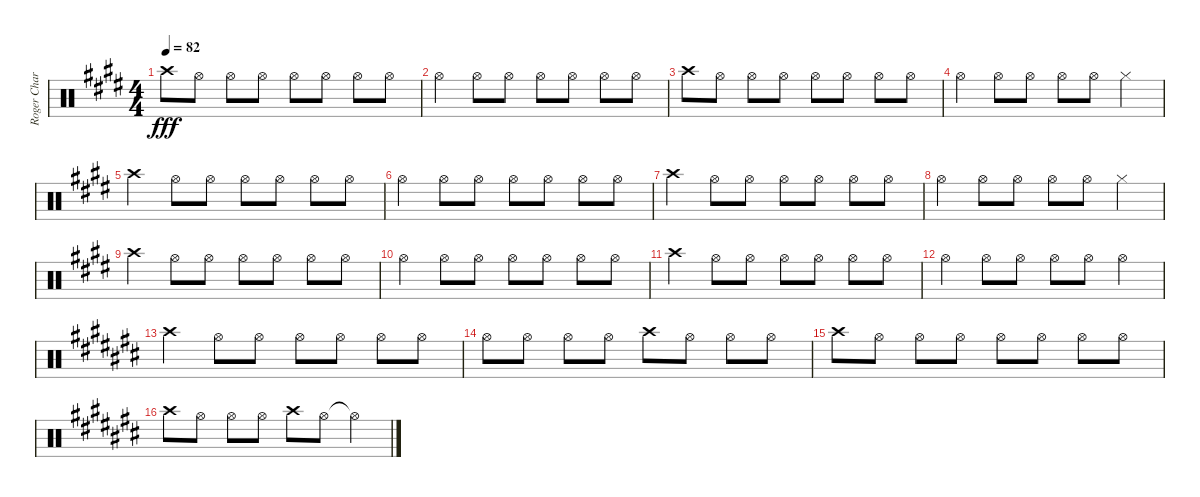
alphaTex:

\track ("Roger Charlet" "Roger Char") {instrument percussion}
\staff {score}
\articulation defaults
\ts (4 4)
\tempo 82
\clef neutral
\ks e "Crash high (hit)".8{dy fff} "Hi-Hat (open)".8 "Hi-Hat (open)".8 "Hi-Hat (open)".8 "Hi-Hat (open)".8 "Hi-Hat (open)".8 "Hi-Hat (open)".8 "Hi-Hat (open)".8
|
"Hi-Hat (open)".4 "Hi-Hat (open)".8 "Hi-Hat (open)".8 "Hi-Hat (open)".8 "Hi-Hat (open)".8 "Hi-Hat (open)".8 "Hi-Hat (open)".8 |
"Crash high (hit)".8 "Hi-Hat (open)".8 "Hi-Hat (open)".8 "Hi-Hat (open)".8 "Hi-Hat (open)".8 "Hi-Hat (open)".8 "Hi-Hat (open)".8 "Hi-Hat (open)".8 |
"Hi-Hat (open)".4 "Hi-Hat (open)".8 "Hi-Hat (open)".8 "Hi-Hat (open)".8 "Hi-Hat (open)".8 "Hi-Hat (closed)".4 |
"Crash high (hit)".4 "Hi-Hat (open)".8 "Hi-Hat (open)".8 "Hi-Hat (open)".8 "Hi-Hat (open)".8 "Hi-Hat (open)".8 "Hi-Hat (open)".8 |
"Hi-Hat (open)".4 "Hi-Hat (open)".8 "Hi-Hat (open)".8 "Hi-Hat (open)".8 "Hi-Hat (open)".8 "Hi-Hat (open)".8 "Hi-Hat (open)".8 |
"Crash high (hit)".4 "Hi-Hat (open)".8 "Hi-Hat (open)".8 "Hi-Hat (open)".8 "Hi-Hat (open)".8 "Hi-Hat (open)".8 "Hi-Hat (open)".8 |
"Hi-Hat (open)".4 "Hi-Hat (open)".8 "Hi-Hat (open)".8 "Hi-Hat (open)".8 "Hi-Hat (open)".8 "Hi-Hat (closed)".4 |
"Crash high (hit)".4 "Hi-Hat (open)".8 "Hi-Hat (open)".8 "Hi-Hat (open)".8 "Hi-Hat (open)".8 "Hi-Hat (open)".8 "Hi-Hat (open)".8 |
"Hi-Hat (open)".4 "Hi-Hat (open)".8 "Hi-Hat (open)".8 "Hi-Hat (open)".8 "Hi-Hat (open)".8 "Hi-Hat (open)".8 "Hi-Hat (open)".8 |
"Crash high (hit)".4 "Hi-Hat (open)".8 "Hi-Hat (open)".8 "Hi-Hat (open)".8 "Hi-Hat (open)".8 "Hi-Hat (open)".8 "Hi-Hat (open)".8 |
"Hi-Hat (open)".4 "Hi-Hat (open)".8 "Hi-Hat (open)".8 "Hi-Hat (open)".8 "Hi-Hat (open)".8 "Hi-Hat (open)".4 |
\ks c# "Crash high (hit)".4 "Hi-Hat (open)".8 "Hi-Hat (open)".8 "Hi-Hat (open)".8 "Hi-Hat (open)".8 "Hi-Hat (open)".8 "Hi-Hat (open)".8
|
"Hi-Hat (open)".8 "Hi-Hat (open)".8 "Hi-Hat (open)".8 "Hi-Hat (open)".8 "Crash high (hit)".8 "Hi-Hat (open)".8 "Hi-Hat (open)".8 "Hi-Hat (open)".8 |
"Crash high (hit)".8 "Hi-Hat (open)".8 "Hi-Hat (open)".8 "Hi-Hat (open)".8 "Hi-Hat (open)".8 "Hi-Hat (open)".8 "Hi-Hat (open)".8 "Hi-Hat (open)".8 |
"Crash high (hit)".8 "Hi-Hat (open)".8 "Hi-Hat (open)".8 "Hi-Hat (open)".8 "Crash high (hit)".8 "Hi-Hat (open)".8 "Hi-Hat (open)"{t}.4
